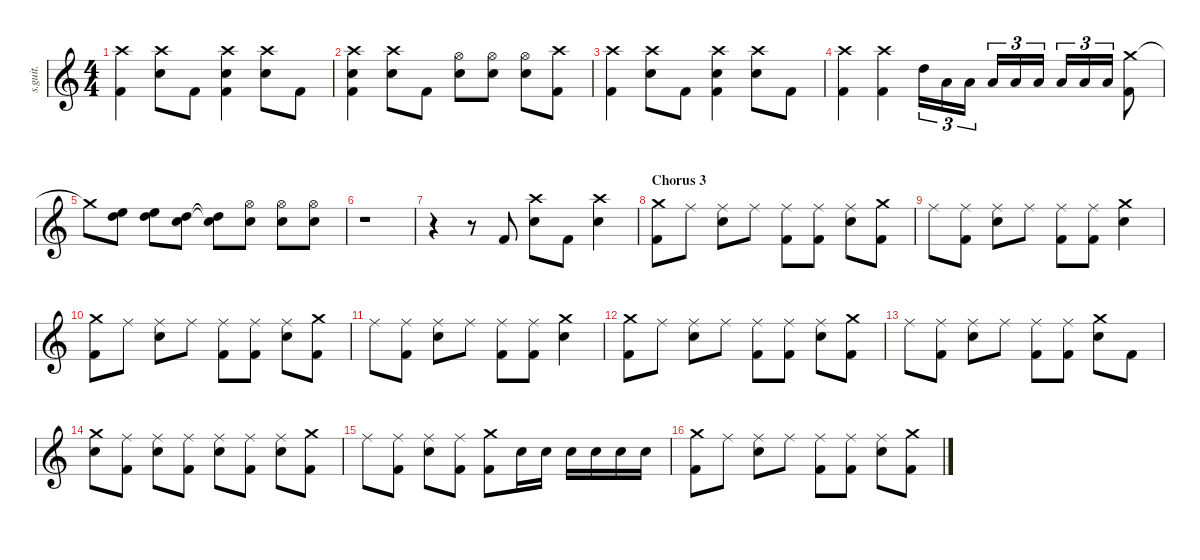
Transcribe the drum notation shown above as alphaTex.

\defaultSystemsLayout 4
\hideDynamics
\bracketExtendMode nobrackets
\track ("Earth" "s.guit.") {instrument percussion}
\staff {score}
\articulation defaults
\ts (4 4)
\tempo (130 hide)
\clef g2
\ks c
("Crash high (hit)" "Kick (hit) 2").4{lyrics (0 "") lyrics (1 "") lyrics (2 "") lyrics (3 "") lyrics (4 "") dy f} ("Crash high (hit)" "Snare (hit) 2").8{lyrics (0 "") lyrics (1 "") lyrics (2 "") lyrics (3 "") lyrics (4 "")} "Kick (hit) 2".8{lyrics (0 "") lyrics (1 "") lyrics (2 "") lyrics (3 "") lyrics (4 "")} ("Crash high (hit)" "Snare (hit) 2" "Kick (hit) 2").4{lyrics (0 "") lyrics (1 "") lyrics (2 "") lyrics (3 "") lyrics (4 "")} ("Crash high (hit)" "Snare (hit) 2").8{lyrics (0 "") lyrics (1 "") lyrics (2 "") lyrics (3 "") lyrics (4 "")} "Kick (hit) 2".8{lyrics (0 "") lyrics (1 "") lyrics (2 "") lyrics (3 "") lyrics (4 "")} |
("Crash high (hit)" "Snare (hit) 2" "Kick (hit) 2").4{lyrics (0 "") lyrics (1 "") lyrics (2 "") lyrics (3 "") lyrics (4 "")} ("Crash high (hit)" "Snare (hit) 2").8{lyrics (0 "") lyrics (1 "") lyrics (2 "") lyrics (3 "") lyrics (4 "")} "Kick (hit) 2".8{lyrics (0 "") lyrics (1 "") lyrics (2 "") lyrics (3 "") lyrics (4 "")} ("Hi-Hat (open)" "Snare (hit) 2").8{lyrics (0 "") lyrics (1 "") lyrics (2 "") lyrics (3 "") lyrics (4 "")} ("Hi-Hat (open)" "Snare (hit) 2").8{lyrics (0 "") lyrics (1 "") lyrics (2 "") lyrics (3 "") lyrics (4 "")} ("Hi-Hat (open)" "Snare (hit) 2").8{lyrics (0 "") lyrics (1 "") lyrics (2 "") lyrics (3 "") lyrics (4 "")} ("Crash high (hit)" "Kick (hit) 2").8{lyrics (0 "") lyrics (1 "") lyrics (2 "") lyrics (3 "") lyrics (4 "")} |
("Crash high (hit)" "Kick (hit) 2").4{lyrics (0 "") lyrics (1 "") lyrics (2 "") lyrics (3 "") lyrics (4 "")} ("Crash high (hit)" "Snare (hit) 2").8{lyrics (0 "") lyrics (1 "") lyrics (2 "") lyrics (3 "") lyrics (4 "")} "Kick (hit) 2".8{lyrics (0 "") lyrics (1 "") lyrics (2 "") lyrics (3 "") lyrics (4 "")} ("Crash high (hit)" "Snare (hit) 2" "Kick (hit) 2").4{lyrics (0 "") lyrics (1 "") lyrics (2 "") lyrics (3 "") lyrics (4 "")} ("Crash high (hit)" "Snare (hit) 2").8{lyrics (0 "") lyrics (1 "") lyrics (2 "") lyrics (3 "") lyrics (4 "")} "Kick (hit) 2".8{lyrics (0 "") lyrics (1 "") lyrics (2 "") lyrics (3 "") lyrics (4 "")} |
("Crash high (hit)" "Kick (hit) 2").4{lyrics (0 "") lyrics (1 "") lyrics (2 "") lyrics (3 "") lyrics (4 "")} ("Crash high (hit)" "Kick (hit) 2").4{lyrics (0 "") lyrics (1 "") lyrics (2 "") lyrics (3 "") lyrics (4 "")} "High Tom (hit)".16{tu (3 2) lyrics (0 "") lyrics (1 "") lyrics (2 "") lyrics (3 "") lyrics (4 "")} "Low Tom (hit)".16{tu (3 2) lyrics (0 "") lyrics (1 "") lyrics (2 "") lyrics (3 "") lyrics (4 "")} "Low Tom (hit)".16{tu (3 2) lyrics (0 "") lyrics (1 "") lyrics (2 "") lyrics (3 "") lyrics (4 "")} "Low Tom (hit)".16{tu (3 2) lyrics (0 "") lyrics (1 "") lyrics (2 "") lyrics (3 "") lyrics (4 "")} "Low Tom (hit)".16{tu (3 2) lyrics (0 "") lyrics (1 "") lyrics (2 "") lyrics (3 "") lyrics (4 "")} "Low Tom (hit)".16{tu (3 2) lyrics (0 "") lyrics (1 "") lyrics (2 "") lyrics (3 "") lyrics (4 "")} "Low Tom (hit)".16{tu (3 2) lyrics (0 "") lyrics (1 "") lyrics (2 "") lyrics (3 "") lyrics (4 "")} "Low Tom (hit)".16{tu (3 2) lyrics (0 "") lyrics (1 "") lyrics (2 "") lyrics (3 "") lyrics (4 "")} "Low Tom (hit)".16{tu (3 2) lyrics (0 "") lyrics (1 "") lyrics (2 "") lyrics (3 "") lyrics (4 "")} ("Crash medium (hit)" "Kick (hit) 2").8{lyrics (0 "") lyrics (1 "") lyrics (2 "") lyrics (3 "") lyrics (4 "")} |
"Crash medium (hit)"{t}.8{lyrics (0 "") lyrics (1 "") lyrics (2 "") lyrics (3 "") lyrics (4 "")} ("High Floor Tom (hit)" "High Tom (hit)").8{lyrics (0 "") lyrics (1 "") lyrics (2 "") lyrics (3 "") lyrics (4 "")} ("High Floor Tom (hit)" "High Tom (hit)").8{lyrics (0 "") lyrics (1 "") lyrics (2 "") lyrics (3 "") lyrics (4 "")} ("High Tom (hit)" "Snare (hit) 2").8{lyrics (0 "") lyrics (1 "") lyrics (2 "") lyrics (3 "") lyrics (4 "")} ("High Tom (hit)"{t} "Snare (hit) 2"{t}).8{lyrics (0 "") lyrics (1 "") lyrics (2 "") lyrics (3 "") lyrics (4 "")} ("Hi-Hat (open)" "Snare (hit) 2").8{lyrics (0 "") lyrics (1 "") lyrics (2 "") lyrics (3 "") lyrics (4 "")} ("Hi-Hat (open)" "Snare (hit) 2").8{lyrics (0 "") lyrics (1 "") lyrics (2 "") lyrics (3 "") lyrics (4 "")} ("Hi-Hat (open)" "Snare (hit) 2").8{lyrics (0 "") lyrics (1 "") lyrics (2 "") lyrics (3 "") lyrics (4 "")} |
r.1 |
r.4 r.8 "Kick (hit) 2".8{lyrics (0 "") lyrics (1 "") lyrics (2 "") lyrics (3 "") lyrics (4 "")} ("Crash high (hit)" "Snare (hit) 2").8{lyrics (0 "") lyrics (1 "") lyrics (2 "") lyrics (3 "") lyrics (4 "")} "Kick (hit) 2".8{lyrics (0 "") lyrics (1 "") lyrics (2 "") lyrics (3 "") lyrics (4 "")} ("Crash high (hit)" "Snare (hit) 2").4{lyrics (0 "") lyrics (1 "") lyrics (2 "") lyrics (3 "") lyrics (4 "")} |
\section ("" "Chorus 3")
("Crash medium (hit)" "Kick (hit) 2").8{lyrics (0 "") lyrics (1 "") lyrics (2 "") lyrics (3 "") lyrics (4 "")} "Ride (middle)".8{lyrics (0 "") lyrics (1 "") lyrics (2 "") lyrics (3 "") lyrics (4 "")} ("Ride (middle)" "Snare (hit) 2").8{lyrics (0 "") lyrics (1 "") lyrics (2 "") lyrics (3 "") lyrics (4 "")} "Ride (middle)".8{lyrics (0 "") lyrics (1 "") lyrics (2 "") lyrics (3 "") lyrics (4 "")} ("Ride (middle)" "Kick (hit) 2").8{lyrics (0 "") lyrics (1 "") lyrics (2 "") lyrics (3 "") lyrics (4 "")} ("Ride (middle)" "Kick (hit) 2").8{lyrics (0 "") lyrics (1 "") lyrics (2 "") lyrics (3 "") lyrics (4 "")} ("Ride (middle)" "Snare (hit) 2").8{lyrics (0 "") lyrics (1 "") lyrics (2 "") lyrics (3 "") lyrics (4 "")} ("Crash medium (hit)" "Kick (hit) 2").8{lyrics (0 "") lyrics (1 "") lyrics (2 "") lyrics (3 "") lyrics (4 "")} |
"Ride (middle)".8{lyrics (0 "") lyrics (1 "") lyrics (2 "") lyrics (3 "") lyrics (4 "")} ("Ride (middle)" "Kick (hit) 2").8{lyrics (0 "") lyrics (1 "") lyrics (2 "") lyrics (3 "") lyrics (4 "")} ("Ride (middle)" "Snare (hit) 2").8{lyrics (0 "") lyrics (1 "") lyrics (2 "") lyrics (3 "") lyrics (4 "")} "Ride (middle)".8{lyrics (0 "") lyrics (1 "") lyrics (2 "") lyrics (3 "") lyrics (4 "")} ("Ride (middle)" "Kick (hit) 2").8{lyrics (0 "") lyrics (1 "") lyrics (2 "") lyrics (3 "") lyrics (4 "")} ("Ride (middle)" "Kick (hit) 2").8{lyrics (0 "") lyrics (1 "") lyrics (2 "") lyrics (3 "") lyrics (4 "")} ("Crash medium (hit)" "Snare (hit) 2").4{lyrics (0 "") lyrics (1 "") lyrics (2 "") lyrics (3 "") lyrics (4 "")} |
("Crash medium (hit)" "Kick (hit) 2").8{lyrics (0 "") lyrics (1 "") lyrics (2 "") lyrics (3 "") lyrics (4 "")} "Ride (middle)".8{lyrics (0 "") lyrics (1 "") lyrics (2 "") lyrics (3 "") lyrics (4 "")} ("Ride (middle)" "Snare (hit) 2").8{lyrics (0 "") lyrics (1 "") lyrics (2 "") lyrics (3 "") lyrics (4 "")} "Ride (middle)".8{lyrics (0 "") lyrics (1 "") lyrics (2 "") lyrics (3 "") lyrics (4 "")} ("Ride (middle)" "Kick (hit) 2").8{lyrics (0 "") lyrics (1 "") lyrics (2 "") lyrics (3 "") lyrics (4 "")} ("Ride (middle)" "Kick (hit) 2").8{lyrics (0 "") lyrics (1 "") lyrics (2 "") lyrics (3 "") lyrics (4 "")} ("Ride (middle)" "Snare (hit) 2").8{lyrics (0 "") lyrics (1 "") lyrics (2 "") lyrics (3 "") lyrics (4 "")} ("Crash medium (hit)" "Kick (hit) 2").8{lyrics (0 "") lyrics (1 "") lyrics (2 "") lyrics (3 "") lyrics (4 "")} |
"Ride (middle)".8{lyrics (0 "") lyrics (1 "") lyrics (2 "") lyrics (3 "") lyrics (4 "")} ("Ride (middle)" "Kick (hit) 2").8{lyrics (0 "") lyrics (1 "") lyrics (2 "") lyrics (3 "") lyrics (4 "")} ("Ride (middle)" "Snare (hit) 2").8{lyrics (0 "") lyrics (1 "") lyrics (2 "") lyrics (3 "") lyrics (4 "")} "Ride (middle)".8{lyrics (0 "") lyrics (1 "") lyrics (2 "") lyrics (3 "") lyrics (4 "")} ("Ride (middle)" "Kick (hit) 2").8{lyrics (0 "") lyrics (1 "") lyrics (2 "") lyrics (3 "") lyrics (4 "")} ("Ride (middle)" "Kick (hit) 2").8{lyrics (0 "") lyrics (1 "") lyrics (2 "") lyrics (3 "") lyrics (4 "")} ("Crash medium (hit)" "Snare (hit) 2").4{lyrics (0 "") lyrics (1 "") lyrics (2 "") lyrics (3 "") lyrics (4 "")} |
("Crash medium (hit)" "Kick (hit) 2").8{lyrics (0 "") lyrics (1 "") lyrics (2 "") lyrics (3 "") lyrics (4 "")} "Ride (middle)".8{lyrics (0 "") lyrics (1 "") lyrics (2 "") lyrics (3 "") lyrics (4 "")} ("Ride (middle)" "Snare (hit) 2").8{lyrics (0 "") lyrics (1 "") lyrics (2 "") lyrics (3 "") lyrics (4 "")} "Ride (middle)".8{lyrics (0 "") lyrics (1 "") lyrics (2 "") lyrics (3 "") lyrics (4 "")} ("Ride (middle)" "Kick (hit) 2").8{lyrics (0 "") lyrics (1 "") lyrics (2 "") lyrics (3 "") lyrics (4 "")} ("Ride (middle)" "Kick (hit) 2").8{lyrics (0 "") lyrics (1 "") lyrics (2 "") lyrics (3 "") lyrics (4 "")} ("Ride (middle)" "Snare (hit) 2").8{lyrics (0 "") lyrics (1 "") lyrics (2 "") lyrics (3 "") lyrics (4 "")} ("Crash medium (hit)" "Kick (hit) 2").8{lyrics (0 "") lyrics (1 "") lyrics (2 "") lyrics (3 "") lyrics (4 "")} |
"Ride (middle)".8{lyrics (0 "") lyrics (1 "") lyrics (2 "") lyrics (3 "") lyrics (4 "")} ("Ride (middle)" "Kick (hit) 2").8{lyrics (0 "") lyrics (1 "") lyrics (2 "") lyrics (3 "") lyrics (4 "")} ("Ride (middle)" "Snare (hit) 2").8{lyrics (0 "") lyrics (1 "") lyrics (2 "") lyrics (3 "") lyrics (4 "")} "Ride (middle)".8{lyrics (0 "") lyrics (1 "") lyrics (2 "") lyrics (3 "") lyrics (4 "")} ("Ride (middle)" "Kick (hit) 2").8{lyrics (0 "") lyrics (1 "") lyrics (2 "") lyrics (3 "") lyrics (4 "")} ("Ride (middle)" "Kick (hit) 2").8{lyrics (0 "") lyrics (1 "") lyrics (2 "") lyrics (3 "") lyrics (4 "")} ("Crash medium (hit)" "Snare (hit) 2").8{lyrics (0 "") lyrics (1 "") lyrics (2 "") lyrics (3 "") lyrics (4 "")} "Kick (hit) 2".8{lyrics (0 "") lyrics (1 "") lyrics (2 "") lyrics (3 "") lyrics (4 "")} |
("Crash medium (hit)" "Snare (hit) 2").8{lyrics (0 "") lyrics (1 "") lyrics (2 "") lyrics (3 "") lyrics (4 "")} ("Ride (middle)" "Kick (hit) 2").8{lyrics (0 "") lyrics (1 "") lyrics (2 "") lyrics (3 "") lyrics (4 "")} ("Ride (middle)" "Snare (hit) 2").8{lyrics (0 "") lyrics (1 "") lyrics (2 "") lyrics (3 "") lyrics (4 "")} ("Ride (middle)" "Kick (hit) 2").8{lyrics (0 "") lyrics (1 "") lyrics (2 "") lyrics (3 "") lyrics (4 "")} ("Ride (middle)" "Snare (hit) 2").8{lyrics (0 "") lyrics (1 "") lyrics (2 "") lyrics (3 "") lyrics (4 "")} ("Ride (middle)" "Kick (hit) 2").8{lyrics (0 "") lyrics (1 "") lyrics (2 "") lyrics (3 "") lyrics (4 "")} ("Ride (middle)" "Snare (hit) 2").8{lyrics (0 "") lyrics (1 "") lyrics (2 "") lyrics (3 "") lyrics (4 "")} ("Crash medium (hit)" "Kick (hit) 2").8{lyrics (0 "") lyrics (1 "") lyrics (2 "") lyrics (3 "") lyrics (4 "")} |
"Ride (middle)".8{lyrics (0 "") lyrics (1 "") lyrics (2 "") lyrics (3 "") lyrics (4 "")} ("Ride (middle)" "Kick (hit) 2").8{lyrics (0 "") lyrics (1 "") lyrics (2 "") lyrics (3 "") lyrics (4 "")} ("Ride (middle)" "Snare (hit) 2").8{lyrics (0 "") lyrics (1 "") lyrics (2 "") lyrics (3 "") lyrics (4 "")} ("Ride (middle)" "Kick (hit) 2").8{lyrics (0 "") lyrics (1 "") lyrics (2 "") lyrics (3 "") lyrics (4 "")} ("Crash medium (hit)" "Kick (hit) 2").8{lyrics (0 "") lyrics (1 "") lyrics (2 "") lyrics (3 "") lyrics (4 "")} "Snare (hit) 2".16{lyrics (0 "") lyrics (1 "") lyrics (2 "") lyrics (3 "") lyrics (4 "")} "Snare (hit) 2".16{lyrics (0 "") lyrics (1 "") lyrics (2 "") lyrics (3 "") lyrics (4 "")} "Snare (hit) 2".16{lyrics (0 "") lyrics (1 "") lyrics (2 "") lyrics (3 "") lyrics (4 "")} "Snare (hit) 2".16{lyrics (0 "") lyrics (1 "") lyrics (2 "") lyrics (3 "") lyrics (4 "")} "Snare (hit) 2".16{lyrics (0 "") lyrics (1 "") lyrics (2 "") lyrics (3 "") lyrics (4 "")} "Snare (hit) 2".16{lyrics (0 "") lyrics (1 "") lyrics (2 "") lyrics (3 "") lyrics (4 "")} |
("Crash medium (hit)" "Kick (hit) 2").8{lyrics (0 "") lyrics (1 "") lyrics (2 "") lyrics (3 "") lyrics (4 "")} "Ride (middle)".8{lyrics (0 "") lyrics (1 "") lyrics (2 "") lyrics (3 "") lyrics (4 "")} ("Ride (middle)" "Snare (hit) 2").8{lyrics (0 "") lyrics (1 "") lyrics (2 "") lyrics (3 "") lyrics (4 "")} "Ride (middle)".8{lyrics (0 "") lyrics (1 "") lyrics (2 "") lyrics (3 "") lyrics (4 "")} ("Ride (middle)" "Kick (hit) 2").8{lyrics (0 "") lyrics (1 "") lyrics (2 "") lyrics (3 "") lyrics (4 "")} ("Ride (middle)" "Kick (hit) 2").8{lyrics (0 "") lyrics (1 "") lyrics (2 "") lyrics (3 "") lyrics (4 "")} ("Ride (middle)" "Snare (hit) 2").8{lyrics (0 "") lyrics (1 "") lyrics (2 "") lyrics (3 "") lyrics (4 "")} ("Crash medium (hit)" "Kick (hit) 2").8{lyrics (0 "") lyrics (1 "") lyrics (2 "") lyrics (3 "") lyrics (4 "")}
